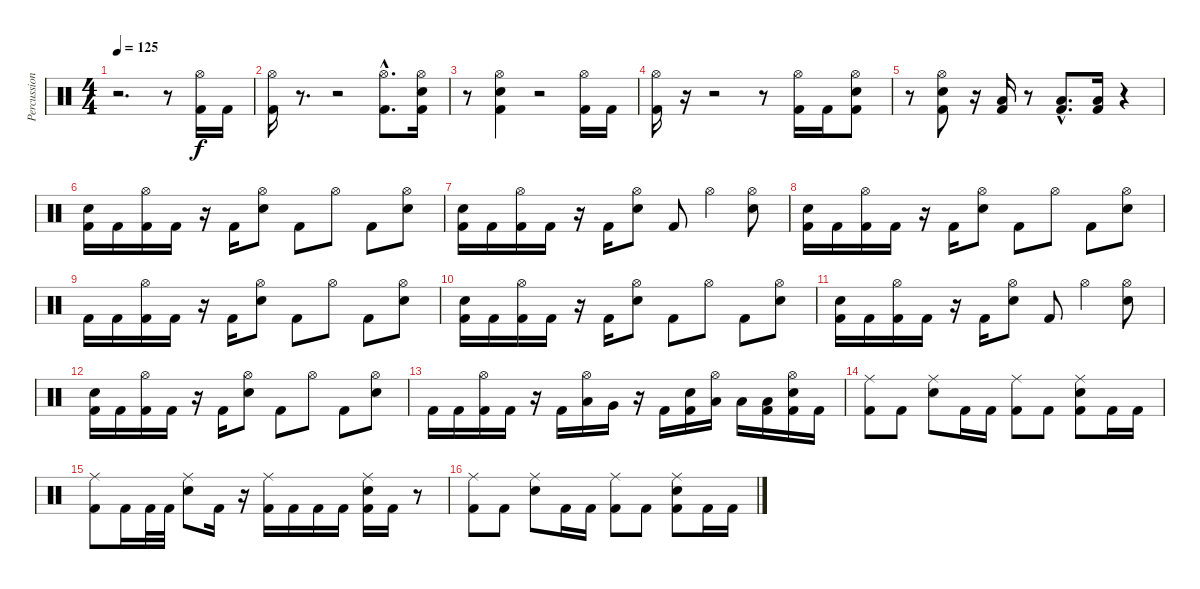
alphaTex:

\track ("Percussions" "Percussion") {instrument percussion}
\staff {score}
\articulation defaults
\ts (4 4)
\tempo 125
\clef neutral
\ks c
r.2{d dy f} r.8 ("Hi-Hat (open)" "Kick (hit) 2").16 "Kick (hit) 2".16 |
("Hi-Hat (open)" "Kick (hit) 2").16 r.8{d} r.2 ("Hi-Hat (open)"{hac} "Kick (hit) 2"{hac}).8{d} ("Hi-Hat (open)" "Electric Snare (hit)" "Kick (hit) 2").16 |
r.8 ("Hi-Hat (open)" "Electric Snare (hit)" "Kick (hit) 2").4 r.2 ("Hi-Hat (open)" "Kick (hit) 2").16 "Kick (hit) 2".16 |
("Hi-Hat (open)" "Kick (hit) 2").16 r.16 r.2 r.8 ("Hi-Hat (open)" "Kick (hit) 2").16 "Kick (hit) 2".16 ("Hi-Hat (open)" "Electric Snare (hit)" "Kick (hit) 2").8 |
r.8 ("Hi-Hat (open)" "Electric Snare (hit)" "Kick (hit) 2").8 r.16 ("Low Floor Tom (hit)" "Kick (hit) 2").16 r.8 ("Low Floor Tom (hit)"{hac} "Kick (hit) 2"{hac}).8{d} ("Low Floor Tom (hit)" "Kick (hit) 2").16 r.4 |
("Electric Snare (hit)" "Kick (hit) 2").16 "Kick (hit) 2".16 ("Hi-Hat (open)" "Kick (hit) 2").16 "Kick (hit) 2".16 r.16 "Kick (hit) 2".16 ("Hi-Hat (open)" "Electric Snare (hit)").8 "Kick (hit) 2".8 "Hi-Hat (open)".8 "Kick (hit) 2".8 ("Hi-Hat (open)" "Electric Snare (hit)").8 |
("Electric Snare (hit)" "Kick (hit) 2").16 "Kick (hit) 2".16 ("Hi-Hat (open)" "Kick (hit) 2").16 "Kick (hit) 2".16 r.16 "Kick (hit) 2".16 ("Hi-Hat (open)" "Electric Snare (hit)").8 "Kick (hit) 2".8 "Hi-Hat (open)".4 ("Hi-Hat (open)" "Electric Snare (hit)").8 |
("Electric Snare (hit)" "Kick (hit) 2").16 "Kick (hit) 2".16 ("Hi-Hat (open)" "Kick (hit) 2").16 "Kick (hit) 2".16 r.16 "Kick (hit) 2".16 ("Hi-Hat (open)" "Electric Snare (hit)").8 "Kick (hit) 2".8 "Hi-Hat (open)".8 "Kick (hit) 2".8 ("Hi-Hat (open)" "Electric Snare (hit)").8 |
"Kick (hit) 2".16 "Kick (hit) 2".16 ("Hi-Hat (open)" "Kick (hit) 2").16 "Kick (hit) 2".16 r.16 "Kick (hit) 2".16 ("Hi-Hat (open)" "Electric Snare (hit)").8 "Kick (hit) 2".8 "Hi-Hat (open)".8 "Kick (hit) 2".8 ("Hi-Hat (open)" "Electric Snare (hit)").8 |
("Electric Snare (hit)" "Kick (hit) 2").16 "Kick (hit) 2".16 ("Hi-Hat (open)" "Kick (hit) 2").16 "Kick (hit) 2".16 r.16 "Kick (hit) 2".16 ("Hi-Hat (open)" "Electric Snare (hit)").8 "Kick (hit) 2".8 "Hi-Hat (open)".8 "Kick (hit) 2".8 ("Hi-Hat (open)" "Electric Snare (hit)").8 |
("Electric Snare (hit)" "Kick (hit) 2").16 "Kick (hit) 2".16 ("Hi-Hat (open)" "Kick (hit) 2").16 "Kick (hit) 2".16 r.16 "Kick (hit) 2".16 ("Hi-Hat (open)" "Electric Snare (hit)").8 "Kick (hit) 2".8 "Hi-Hat (open)".4 ("Hi-Hat (open)" "Electric Snare (hit)").8 |
("Electric Snare (hit)" "Kick (hit) 2").16 "Kick (hit) 2".16 ("Hi-Hat (open)" "Kick (hit) 2").16 "Kick (hit) 2".16 r.16 "Kick (hit) 2".16 ("Hi-Hat (open)" "Electric Snare (hit)").8 "Kick (hit) 2".8 "Hi-Hat (open)".8 "Kick (hit) 2".8 ("Hi-Hat (open)" "Electric Snare (hit)").8 |
"Kick (hit) 2".16 "Kick (hit) 2".16 ("Hi-Hat (open)" "Kick (hit) 2").16 "Kick (hit) 2".16 r.16 "Kick (hit) 2".16 ("Hi-Hat (open)" "Low Tom (hit)").16 "Very Low Tom (hit)".16 r.16 "Kick (hit) 2".16 ("Electric Snare (hit)" "Kick (hit) 2").16 ("Hi-Hat (open)" "Low Tom (hit)").16 "Low Tom (hit)".16 ("Low Tom (hit)" "Kick (hit) 2").16 ("Hi-Hat (open)" "Electric Snare (hit)" "Kick (hit) 2").16 "Kick (hit) 2".16 |
("Ride (middle)" "Kick (hit) 2").8 "Kick (hit) 2".8 ("Ride (middle)" "Electric Snare (hit)").8 "Kick (hit) 2".16 "Kick (hit) 2".16 ("Ride (middle)" "Kick (hit) 2").8 "Kick (hit) 2".8 ("Ride (middle)" "Electric Snare (hit)" "Kick (hit) 2").8 "Kick (hit) 2".16 "Kick (hit) 2".16 |
("Ride (middle)" "Kick (hit) 2").8 "Kick (hit) 2".16 "Kick (hit) 2".32 "Kick (hit) 2".32 ("Ride (middle)" "Electric Snare (hit)").8 "Kick (hit) 2".16 r.16 ("Ride (middle)" "Kick (hit) 2").16 "Kick (hit) 2".16 "Kick (hit) 2".16 "Kick (hit) 2".16 ("Ride (middle)" "Electric Snare (hit)" "Kick (hit) 2").16 "Kick (hit) 2".16 r.8 |
("Ride (middle)" "Kick (hit) 2").8 "Kick (hit) 2".8 ("Ride (middle)" "Electric Snare (hit)").8 "Kick (hit) 2".16 "Kick (hit) 2".16 ("Ride (middle)" "Kick (hit) 2").8 "Kick (hit) 2".8 ("Ride (middle)" "Electric Snare (hit)" "Kick (hit) 2").8 "Kick (hit) 2".16 "Kick (hit) 2".16
